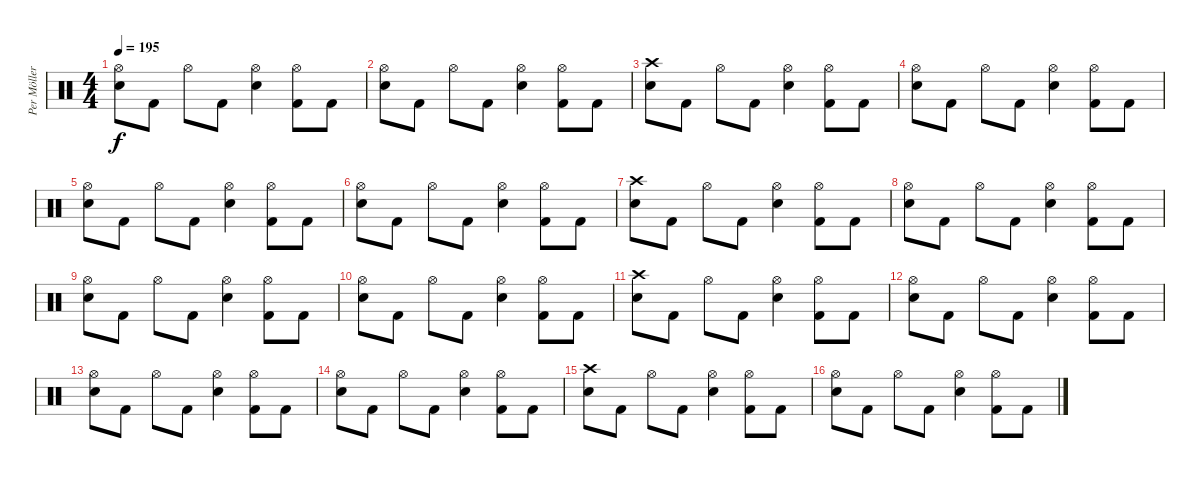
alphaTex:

\track ("Per Möller Jensen" "Per Möller") {instrument percussion}
\staff {score}
\articulation defaults
\ts (4 4)
\tempo 195
\clef neutral
\ks c
("Hi-Hat (open)" "Snare (hit) 2").8{dy f} "Kick (hit) 2".8 "Hi-Hat (open)".8 "Kick (hit) 2".8 ("Hi-Hat (open)" "Snare (hit) 2").4 ("Hi-Hat (open)" "Kick (hit) 2").8 "Kick (hit) 2".8 |
("Hi-Hat (open)" "Snare (hit) 2").8 "Kick (hit) 2".8 "Hi-Hat (open)".8 "Kick (hit) 2".8 ("Hi-Hat (open)" "Snare (hit) 2").4 ("Hi-Hat (open)" "Kick (hit) 2").8 "Kick (hit) 2".8 |
("Crash high (hit)" "Snare (hit) 2").8 "Kick (hit) 2".8 "Hi-Hat (open)".8 "Kick (hit) 2".8 ("Hi-Hat (open)" "Snare (hit) 2").4 ("Hi-Hat (open)" "Kick (hit) 2").8 "Kick (hit) 2".8 |
("Hi-Hat (open)" "Snare (hit) 2").8 "Kick (hit) 2".8 "Hi-Hat (open)".8 "Kick (hit) 2".8 ("Hi-Hat (open)" "Snare (hit) 2").4 ("Hi-Hat (open)" "Kick (hit) 2").8 "Kick (hit) 2".8 |
("Hi-Hat (open)" "Snare (hit) 2").8 "Kick (hit) 2".8 "Hi-Hat (open)".8 "Kick (hit) 2".8 ("Hi-Hat (open)" "Snare (hit) 2").4 ("Hi-Hat (open)" "Kick (hit) 2").8 "Kick (hit) 2".8 |
("Hi-Hat (open)" "Snare (hit) 2").8 "Kick (hit) 2".8 "Hi-Hat (open)".8 "Kick (hit) 2".8 ("Hi-Hat (open)" "Snare (hit) 2").4 ("Hi-Hat (open)" "Kick (hit) 2").8 "Kick (hit) 2".8 |
("Crash high (hit)" "Snare (hit) 2").8 "Kick (hit) 2".8 "Hi-Hat (open)".8 "Kick (hit) 2".8 ("Hi-Hat (open)" "Snare (hit) 2").4 ("Hi-Hat (open)" "Kick (hit) 2").8 "Kick (hit) 2".8 |
("Hi-Hat (open)" "Snare (hit) 2").8 "Kick (hit) 2".8 "Hi-Hat (open)".8 "Kick (hit) 2".8 ("Hi-Hat (open)" "Snare (hit) 2").4 ("Hi-Hat (open)" "Kick (hit) 2").8 "Kick (hit) 2".8 |
("Hi-Hat (open)" "Snare (hit) 2").8 "Kick (hit) 2".8 "Hi-Hat (open)".8 "Kick (hit) 2".8 ("Hi-Hat (open)" "Snare (hit) 2").4 ("Hi-Hat (open)" "Kick (hit) 2").8 "Kick (hit) 2".8 |
("Hi-Hat (open)" "Snare (hit) 2").8 "Kick (hit) 2".8 "Hi-Hat (open)".8 "Kick (hit) 2".8 ("Hi-Hat (open)" "Snare (hit) 2").4 ("Hi-Hat (open)" "Kick (hit) 2").8 "Kick (hit) 2".8 |
("Crash high (hit)" "Snare (hit) 2").8 "Kick (hit) 2".8 "Hi-Hat (open)".8 "Kick (hit) 2".8 ("Hi-Hat (open)" "Snare (hit) 2").4 ("Hi-Hat (open)" "Kick (hit) 2").8 "Kick (hit) 2".8 |
("Hi-Hat (open)" "Snare (hit) 2").8 "Kick (hit) 2".8 "Hi-Hat (open)".8 "Kick (hit) 2".8 ("Hi-Hat (open)" "Snare (hit) 2").4 ("Hi-Hat (open)" "Kick (hit) 2").8 "Kick (hit) 2".8 |
("Hi-Hat (open)" "Snare (hit) 2").8 "Kick (hit) 2".8 "Hi-Hat (open)".8 "Kick (hit) 2".8 ("Hi-Hat (open)" "Snare (hit) 2").4 ("Hi-Hat (open)" "Kick (hit) 2").8 "Kick (hit) 2".8 |
("Hi-Hat (open)" "Snare (hit) 2").8 "Kick (hit) 2".8 "Hi-Hat (open)".8 "Kick (hit) 2".8 ("Hi-Hat (open)" "Snare (hit) 2").4 ("Hi-Hat (open)" "Kick (hit) 2").8 "Kick (hit) 2".8 |
("Crash high (hit)" "Snare (hit) 2").8 "Kick (hit) 2".8 "Hi-Hat (open)".8 "Kick (hit) 2".8 ("Hi-Hat (open)" "Snare (hit) 2").4 ("Hi-Hat (open)" "Kick (hit) 2").8 "Kick (hit) 2".8 |
("Hi-Hat (open)" "Snare (hit) 2").8 "Kick (hit) 2".8 "Hi-Hat (open)".8 "Kick (hit) 2".8 ("Hi-Hat (open)" "Snare (hit) 2").4 ("Hi-Hat (open)" "Kick (hit) 2").8 "Kick (hit) 2".8
